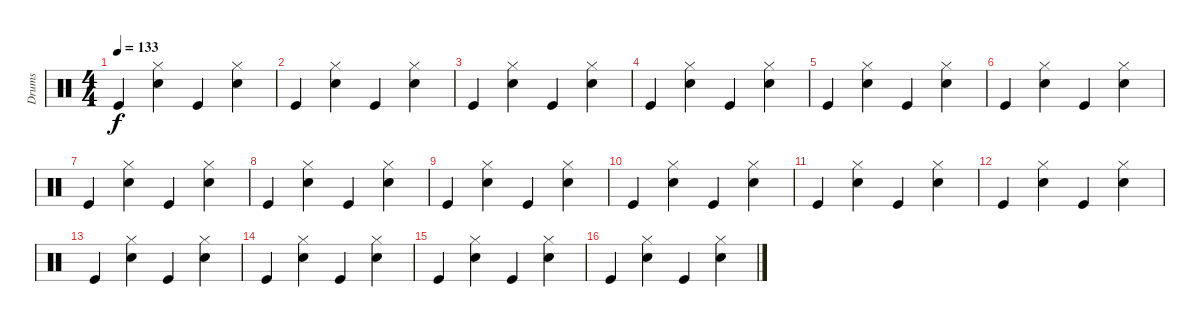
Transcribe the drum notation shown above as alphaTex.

\track ("Drums" "Drums") {instrument percussion}
\staff {score}
\articulation defaults
\ts (4 4)
\tempo 133
\clef neutral
\ks c "Kick (hit)".4{dy f}
("Hi-Hat (closed)" "Snare (hit) 2").4 "Kick (hit)".4 ("Hi-Hat (closed)" "Snare (hit) 2").4 |
"Kick (hit)".4 ("Hi-Hat (closed)" "Snare (hit) 2").4 "Kick (hit)".4 ("Hi-Hat (closed)" "Snare (hit) 2").4 |
"Kick (hit)".4 ("Hi-Hat (closed)" "Snare (hit) 2").4 "Kick (hit)".4 ("Hi-Hat (closed)" "Snare (hit) 2").4 |
"Kick (hit)".4 ("Hi-Hat (closed)" "Snare (hit) 2").4 "Kick (hit)".4 ("Hi-Hat (closed)" "Snare (hit) 2").4 |
"Kick (hit)".4 ("Hi-Hat (closed)" "Snare (hit) 2").4 "Kick (hit)".4 ("Hi-Hat (closed)" "Snare (hit) 2").4 |
"Kick (hit)".4 ("Hi-Hat (closed)" "Snare (hit) 2").4 "Kick (hit)".4 ("Hi-Hat (closed)" "Snare (hit) 2").4 |
"Kick (hit)".4 ("Hi-Hat (closed)" "Snare (hit) 2").4 "Kick (hit)".4 ("Hi-Hat (closed)" "Snare (hit) 2").4 |
"Kick (hit)".4 ("Hi-Hat (closed)" "Snare (hit) 2").4 "Kick (hit)".4 ("Hi-Hat (closed)" "Snare (hit) 2").4 |
"Kick (hit)".4 ("Hi-Hat (closed)" "Snare (hit) 2").4 "Kick (hit)".4 ("Hi-Hat (closed)" "Snare (hit) 2").4 |
"Kick (hit)".4 ("Hi-Hat (closed)" "Snare (hit) 2").4 "Kick (hit)".4 ("Hi-Hat (closed)" "Snare (hit) 2").4 |
"Kick (hit)".4 ("Hi-Hat (closed)" "Snare (hit) 2").4 "Kick (hit)".4 ("Hi-Hat (closed)" "Snare (hit) 2").4 |
"Kick (hit)".4 ("Hi-Hat (closed)" "Snare (hit) 2").4 "Kick (hit)".4 ("Hi-Hat (closed)" "Snare (hit) 2").4 |
"Kick (hit)".4 ("Hi-Hat (closed)" "Snare (hit) 2").4 "Kick (hit)".4 ("Hi-Hat (closed)" "Snare (hit) 2").4 |
"Kick (hit)".4 ("Hi-Hat (closed)" "Snare (hit) 2").4 "Kick (hit)".4 ("Hi-Hat (closed)" "Snare (hit) 2").4 |
"Kick (hit)".4 ("Hi-Hat (closed)" "Snare (hit) 2").4 "Kick (hit)".4 ("Hi-Hat (closed)" "Snare (hit) 2").4 |
"Kick (hit)".4 ("Hi-Hat (closed)" "Snare (hit) 2").4 "Kick (hit)".4 ("Hi-Hat (closed)" "Snare (hit) 2").4
